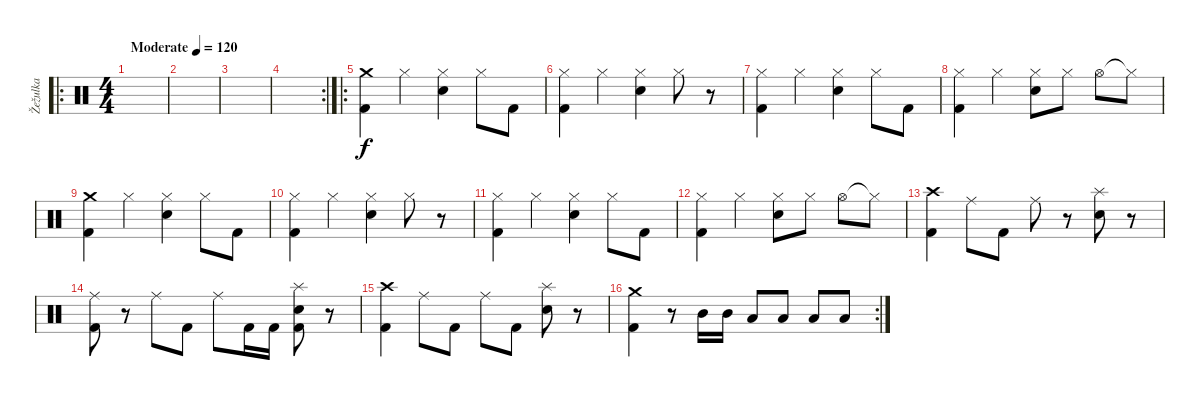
\track ("Žežulka" "Žežulka") {instrument percussion}
\staff {score}
\articulation defaults
\ro
\ts (4 4)
\tempo (120 "Moderate")
\clef neutral
\ks c
|
|
|
\rc 2
|
\ro
("Crash medium (hit)" "Kick (hit) 2").4 "Hi-Hat (closed)".4 ("Hi-Hat (closed)" "Snare (hit) 2").4 "Hi-Hat (closed)".8 "Kick (hit) 2".8 |
("Hi-Hat (closed)" "Kick (hit) 2").4 "Hi-Hat (closed)".4 ("Hi-Hat (closed)" "Snare (hit) 2").4 "Hi-Hat (closed)".8 r.8 |
("Hi-Hat (closed)" "Kick (hit) 2").4 "Hi-Hat (closed)".4 ("Hi-Hat (closed)" "Snare (hit) 2").4 "Hi-Hat (closed)".8 "Kick (hit) 2".8 |
("Hi-Hat (closed)" "Kick (hit) 2").4 "Hi-Hat (closed)".4 ("Hi-Hat (closed)" "Snare (hit) 2").8 "Hi-Hat (closed)".8 "Hi-Hat (open)".8 "Hi-Hat (closed)"{t}.8 |
("Crash medium (hit)" "Kick (hit) 2").4 "Hi-Hat (closed)".4 ("Hi-Hat (closed)" "Snare (hit) 2").4 "Hi-Hat (closed)".8 "Kick (hit) 2".8 |
("Hi-Hat (closed)" "Kick (hit) 2").4 "Hi-Hat (closed)".4 ("Hi-Hat (closed)" "Snare (hit) 2").4 "Hi-Hat (closed)".8 r.8 |
("Hi-Hat (closed)" "Kick (hit) 2").4 "Hi-Hat (closed)".4 ("Hi-Hat (closed)" "Snare (hit) 2").4 "Hi-Hat (closed)".8 "Kick (hit) 2".8 |
("Hi-Hat (closed)" "Kick (hit) 2").4 "Hi-Hat (closed)".4 ("Hi-Hat (closed)" "Snare (hit) 2").8 "Hi-Hat (closed)".8 "Hi-Hat (open)".8 "Hi-Hat (closed)"{t}.8 |
("Crash high (hit)" "Kick (hit) 2").4 "Ride (middle)".8 "Kick (hit) 2".8 "Ride (middle)".8 r.8 ("Splash (hit)" "Snare (hit) 2").8 r.8 |
("Ride (middle)" "Kick (hit) 2").8 r.8 "Ride (middle)".8 "Kick (hit) 2".8 "Ride (middle)".8 "Kick (hit) 2".16 "Kick (hit) 2".16 ("Splash (hit)" "Snare (hit) 2" "Kick (hit) 2").8 r.8 |
("Crash high (hit)" "Kick (hit) 2").4 "Ride (middle)".8 "Kick (hit) 2".8 "Ride (middle)".8 "Kick (hit) 2".8 ("Splash (hit)" "Snare (hit) 2").8 r.8 |
\rc 2
("Crash medium (hit)" "Kick (hit) 2").4 r.8 "Mid Tom (hit)".16 "Mid Tom (hit)".16 "Low Tom (hit)".8 "Low Tom (hit)".8 "Low Floor Tom (hit)".8 "Low Floor Tom (hit)".8
